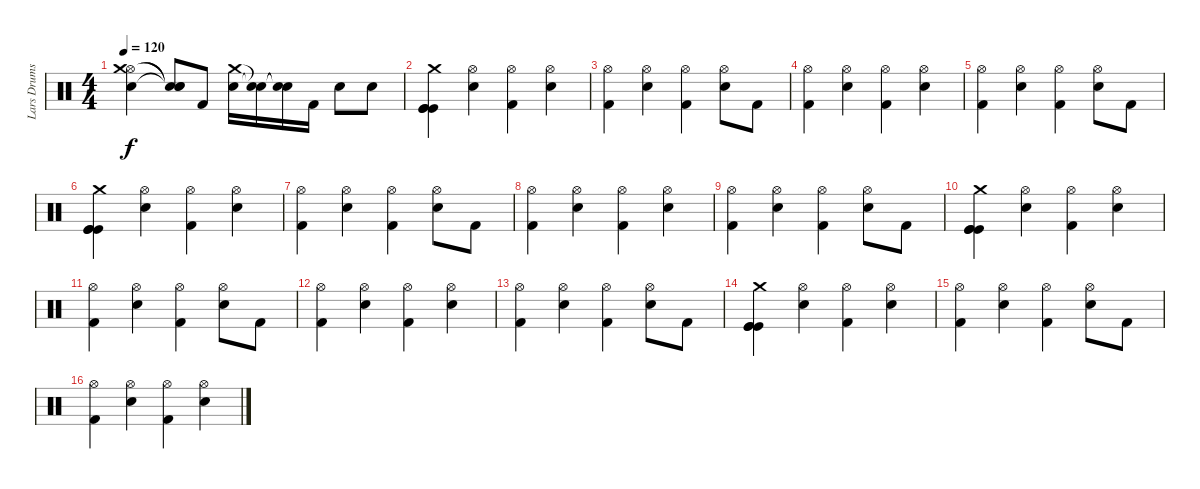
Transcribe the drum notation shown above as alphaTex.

\track ("Lars Drums" "Lars Drums") {instrument percussion}
\staff {score}
\articulation defaults
\ts (4 4)
\tempo 120
\clef neutral
\ks c
("Hi-Hat (open)" "Electric Snare (hit)" "Crash medium (hit)").4{dy f} ("Snare (hit)"{t} "Snare (hit)"{t} "Snare (hit)"{t}).8 "Kick (hit) 2".8 ("Crash medium (hit)" "Electric Snare (hit)").16 ("Snare (hit)"{t} "Snare (hit)"{t}).16 ("Snare (hit)"{t} "Snare (hit)"{t}).16 "Kick (hit) 2".16 "Electric Snare (hit)".8 "Electric Snare (hit)".8 |
("Kick (hit)" "Kick (hit)" "Kick (hit)" "Crash medium (hit)").4 ("Hi-Hat (open)" "Electric Snare (hit)").4 ("Hi-Hat (open)" "Kick (hit) 2").4 ("Hi-Hat (open)" "Electric Snare (hit)").4 |
("Hi-Hat (open)" "Kick (hit) 2").4 ("Hi-Hat (open)" "Electric Snare (hit)").4 ("Hi-Hat (open)" "Kick (hit) 2").4 ("Hi-Hat (open)" "Electric Snare (hit)").8 "Kick (hit) 2".8 |
("Hi-Hat (open)" "Kick (hit) 2").4 ("Hi-Hat (open)" "Electric Snare (hit)").4 ("Hi-Hat (open)" "Kick (hit) 2").4 ("Hi-Hat (open)" "Electric Snare (hit)").4 |
("Hi-Hat (open)" "Kick (hit) 2").4 ("Hi-Hat (open)" "Electric Snare (hit)").4 ("Hi-Hat (open)" "Kick (hit) 2").4 ("Hi-Hat (open)" "Electric Snare (hit)").8 "Kick (hit) 2".8 |
("Kick (hit)" "Kick (hit)" "Kick (hit)" "Crash medium (hit)").4 ("Hi-Hat (open)" "Electric Snare (hit)").4 ("Hi-Hat (open)" "Kick (hit) 2").4 ("Hi-Hat (open)" "Electric Snare (hit)").4 |
("Hi-Hat (open)" "Kick (hit) 2").4 ("Hi-Hat (open)" "Electric Snare (hit)").4 ("Hi-Hat (open)" "Kick (hit) 2").4 ("Hi-Hat (open)" "Electric Snare (hit)").8 "Kick (hit) 2".8 |
("Hi-Hat (open)" "Kick (hit) 2").4 ("Hi-Hat (open)" "Electric Snare (hit)").4 ("Hi-Hat (open)" "Kick (hit) 2").4 ("Hi-Hat (open)" "Electric Snare (hit)").4 |
("Hi-Hat (open)" "Kick (hit) 2").4 ("Hi-Hat (open)" "Electric Snare (hit)").4 ("Hi-Hat (open)" "Kick (hit) 2").4 ("Hi-Hat (open)" "Electric Snare (hit)").8 "Kick (hit) 2".8 |
("Kick (hit)" "Kick (hit)" "Kick (hit)" "Crash medium (hit)").4 ("Hi-Hat (open)" "Electric Snare (hit)").4 ("Hi-Hat (open)" "Kick (hit) 2").4 ("Hi-Hat (open)" "Electric Snare (hit)").4 |
("Hi-Hat (open)" "Kick (hit) 2").4 ("Hi-Hat (open)" "Electric Snare (hit)").4 ("Hi-Hat (open)" "Kick (hit) 2").4 ("Hi-Hat (open)" "Electric Snare (hit)").8 "Kick (hit) 2".8 |
("Hi-Hat (open)" "Kick (hit) 2").4 ("Hi-Hat (open)" "Electric Snare (hit)").4 ("Hi-Hat (open)" "Kick (hit) 2").4 ("Hi-Hat (open)" "Electric Snare (hit)").4 |
("Hi-Hat (open)" "Kick (hit) 2").4 ("Hi-Hat (open)" "Electric Snare (hit)").4 ("Hi-Hat (open)" "Kick (hit) 2").4 ("Hi-Hat (open)" "Electric Snare (hit)").8 "Kick (hit) 2".8 |
("Kick (hit)" "Kick (hit)" "Kick (hit)" "Crash medium (hit)").4 ("Hi-Hat (open)" "Electric Snare (hit)").4 ("Hi-Hat (open)" "Kick (hit) 2").4 ("Hi-Hat (open)" "Electric Snare (hit)").4 |
("Hi-Hat (open)" "Kick (hit) 2").4 ("Hi-Hat (open)" "Electric Snare (hit)").4 ("Hi-Hat (open)" "Kick (hit) 2").4 ("Hi-Hat (open)" "Electric Snare (hit)").8 "Kick (hit) 2".8 |
("Hi-Hat (open)" "Kick (hit) 2").4 ("Hi-Hat (open)" "Electric Snare (hit)").4 ("Hi-Hat (open)" "Kick (hit) 2").4 ("Hi-Hat (open)" "Electric Snare (hit)").4
